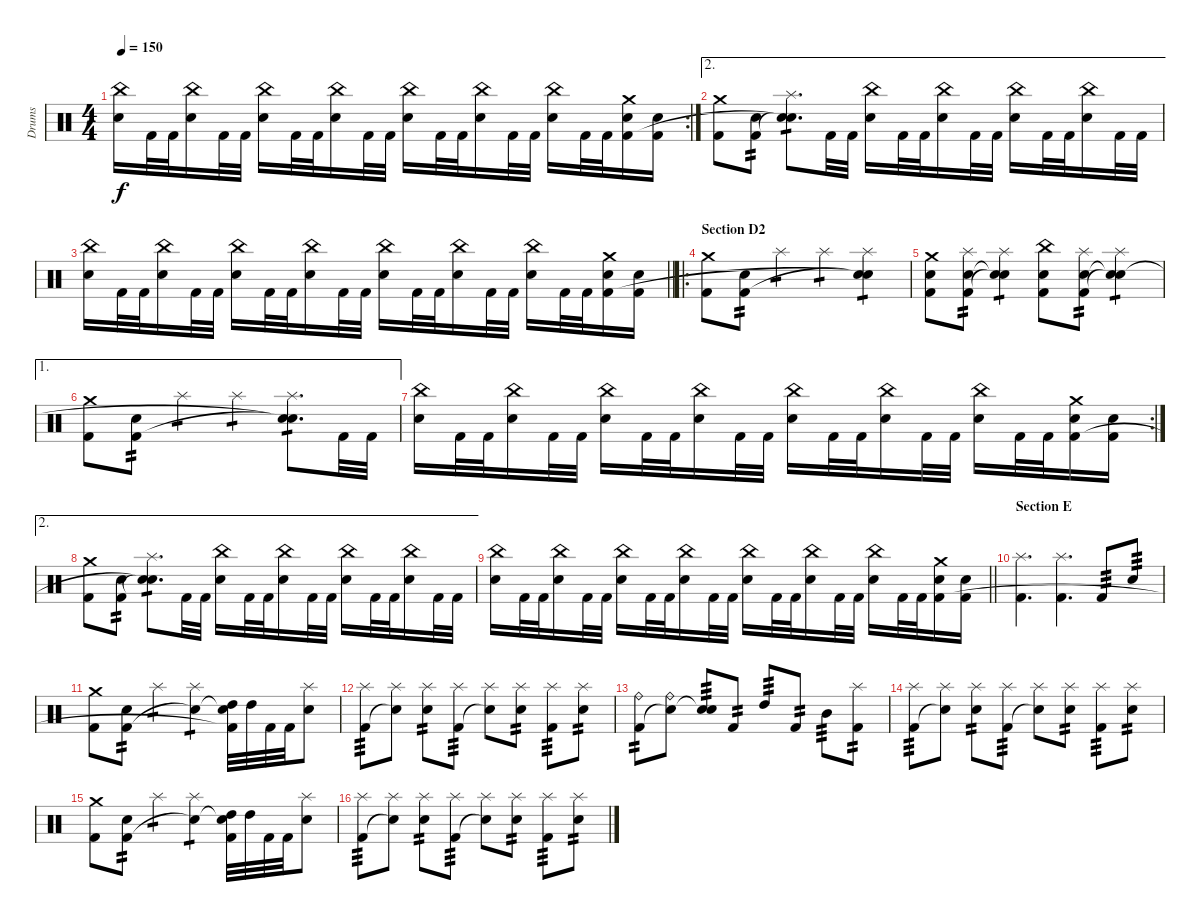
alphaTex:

\track ("Drums" "Drums") {instrument percussion}
\staff {score}
\articulation defaults
\rc 2
\ts (4 4)
\tempo 150
\clef neutral
\ks c
("China (hit)" "Snare (hit) 2").16{dy f} "Kick (hit) 2".32 "Kick (hit) 2".32 ("China (hit)" "Snare (hit) 2").16 "Kick (hit) 2".32 "Kick (hit) 2".32 ("China (hit)" "Snare (hit) 2").16 "Kick (hit) 2".32 "Kick (hit) 2".32 ("China (hit)" "Snare (hit) 2").16 "Kick (hit) 2".32 "Kick (hit) 2".32 ("China (hit)" "Snare (hit) 2").16 "Kick (hit) 2".32 "Kick (hit) 2".32 ("China (hit)" "Snare (hit) 2").16 "Kick (hit) 2".32 "Kick (hit) 2".32 ("China (hit)" "Snare (hit) 2").16 "Kick (hit) 2".32 "Kick (hit) 2".32 ("Crash medium (hit)" "Electric Snare (hit)" "Kick (hit) 2").16 ("Electric Snare (hit)" "Kick (hit) 2").16 |
\ae 2
("Crash medium (hit)" "Kick (hit) 2").8 ("Snare (hit) 2" "Kick (hit) 2").8{tp 2} ("Splash (hit)" "Snare (hit)"{t} "Snare (hit)"{t}).8{d tp 1} "Kick (hit) 2".32 "Kick (hit) 2".32 ("China (hit)" "Snare (hit) 2").16 "Kick (hit) 2".32 "Kick (hit) 2".32 ("China (hit)" "Snare (hit) 2").16 "Kick (hit) 2".32 "Kick (hit) 2".32 ("China (hit)" "Snare (hit) 2").16 "Kick (hit) 2".32 "Kick (hit) 2".32 ("China (hit)" "Snare (hit) 2").16 "Kick (hit) 2".32 "Kick (hit) 2".32 |
\barLineRight lightlight
("China (hit)" "Snare (hit) 2").16 "Kick (hit) 2".32 "Kick (hit) 2".32 ("China (hit)" "Snare (hit) 2").16 "Kick (hit) 2".32 "Kick (hit) 2".32 ("China (hit)" "Snare (hit) 2").16 "Kick (hit) 2".32 "Kick (hit) 2".32 ("China (hit)" "Snare (hit) 2").16 "Kick (hit) 2".32 "Kick (hit) 2".32 ("China (hit)" "Snare (hit) 2").16 "Kick (hit) 2".32 "Kick (hit) 2".32 ("China (hit)" "Snare (hit) 2").16 "Kick (hit) 2".32 "Kick (hit) 2".32 ("China (hit)" "Snare (hit) 2").16 "Kick (hit) 2".32 "Kick (hit) 2".32 ("Crash medium (hit)" "Electric Snare (hit)" "Kick (hit) 2").16 ("Electric Snare (hit)" "Kick (hit) 2").16 |
\ro
\section ("" "Section D2")
("Crash medium (hit)" "Kick (hit) 2").8 ("Snare (hit) 2" "Kick (hit) 2").8{tp 2} "Splash (hit)".4{tp 1} "Splash (hit)".4{tp 1} ("Splash (hit)" "Snare (hit)"{t} "Snare (hit)"{t}).4{tp 1} |
("Crash medium (hit)" "Snare (hit) 2" "Kick (hit) 2").8 ("Splash (hit)" "Snare (hit) 2" "Kick (hit) 2").8{tp 2} ("Splash (hit)" "Snare (hit)"{t} "Snare (hit)"{t}).4{tp 1} ("China (hit)" "Snare (hit) 2" "Kick (hit) 2").8 ("Splash (hit)" "Snare (hit) 2" "Kick (hit) 2").8{tp 2} ("Splash (hit)" "Snare (hit)"{t} "Snare (hit)"{t}).4{tp 1} |
\ae 1
("Crash medium (hit)" "Kick (hit) 2").8 ("Snare (hit) 2" "Kick (hit) 2").8{tp 2} "Splash (hit)".4{tp 1} "Splash (hit)".4{tp 1} ("Splash (hit)" "Snare (hit)"{t} "Snare (hit)"{t}).8{d tp 1} "Kick (hit) 2".32 "Kick (hit) 2".32 |
\rc 2
("China (hit)" "Snare (hit) 2").16 "Kick (hit) 2".32 "Kick (hit) 2".32 ("China (hit)" "Snare (hit) 2").16 "Kick (hit) 2".32 "Kick (hit) 2".32 ("China (hit)" "Snare (hit) 2").16 "Kick (hit) 2".32 "Kick (hit) 2".32 ("China (hit)" "Snare (hit) 2").16 "Kick (hit) 2".32 "Kick (hit) 2".32 ("China (hit)" "Snare (hit) 2").16 "Kick (hit) 2".32 "Kick (hit) 2".32 ("China (hit)" "Snare (hit) 2").16 "Kick (hit) 2".32 "Kick (hit) 2".32 ("China (hit)" "Snare (hit) 2").16 "Kick (hit) 2".32 "Kick (hit) 2".32 ("Crash medium (hit)" "Electric Snare (hit)" "Kick (hit) 2").16 ("Electric Snare (hit)" "Kick (hit) 2").16 |
\ae 2
("Crash medium (hit)" "Kick (hit) 2").8 ("Snare (hit) 2" "Kick (hit) 2").8{tp 2} ("Splash (hit)" "Snare (hit)"{t} "Snare (hit)"{t}).8{d tp 1} "Kick (hit) 2".32 "Kick (hit) 2".32 ("China (hit)" "Snare (hit) 2").16 "Kick (hit) 2".32 "Kick (hit) 2".32 ("China (hit)" "Snare (hit) 2").16 "Kick (hit) 2".32 "Kick (hit) 2".32 ("China (hit)" "Snare (hit) 2").16 "Kick (hit) 2".32 "Kick (hit) 2".32 ("China (hit)" "Snare (hit) 2").16 "Kick (hit) 2".32 "Kick (hit) 2".32 |
\barLineRight lightlight
("China (hit)" "Snare (hit) 2").16 "Kick (hit) 2".32 "Kick (hit) 2".32 ("China (hit)" "Snare (hit) 2").16 "Kick (hit) 2".32 "Kick (hit) 2".32 ("China (hit)" "Snare (hit) 2").16 "Kick (hit) 2".32 "Kick (hit) 2".32 ("China (hit)" "Snare (hit) 2").16 "Kick (hit) 2".32 "Kick (hit) 2".32 ("China (hit)" "Snare (hit) 2").16 "Kick (hit) 2".32 "Kick (hit) 2".32 ("China (hit)" "Snare (hit) 2").16 "Kick (hit) 2".32 "Kick (hit) 2".32 ("China (hit)" "Snare (hit) 2").16 "Kick (hit) 2".32 "Kick (hit) 2".32 ("Crash medium (hit)" "Electric Snare (hit)" "Kick (hit) 2").16 ("Electric Snare (hit)" "Kick (hit) 2").16 |
\section ("" "Section E")
("Splash (hit)" "Kick (hit) 2").4{d} ("Splash (hit)" "Kick (hit) 2").4{d} "Kick (hit) 2".8{tp 3} "Electric Snare (hit)".8{tp 3} |
("Crash medium (hit)" "Kick (hit) 2").8 ("Snare (hit) 2" "Kick (hit) 2").8{tp 2} "Splash (hit)".4{tp 1} ("Splash (hit)" "Snare (hit)"{t}).4{tp 1} ("High Tom (hit)" "Snare (hit)"{t} "Kick (hit) 2"{t}).32 "High Tom (hit)".32 "Kick (hit) 2".32 "Kick (hit) 2".32 ("Splash (hit)" "Electric Snare (hit)").8 |
("Splash (hit)" "Kick (hit) 2").8{tp 3} ("Splash (hit)" "Snare (hit)"{t}).8 ("Splash (hit)" "Electric Snare (hit)").8{tp 2} ("Splash (hit)" "Kick (hit) 2").8{tp 3} ("Splash (hit)" "Snare (hit)"{t}).8 ("Splash (hit)" "Electric Snare (hit)").8{tp 2} ("Splash (hit)" "Kick (hit) 2").8{tp 3} ("Splash (hit)" "Electric Snare (hit)").8{tp 2} |
("Ride (bell)" "Kick (hit) 2").8{tp 2} ("Ride (bell)" "Snare (hit)"{t}).8 ("Electric Snare (hit)" "Snare (hit)"{t}).8{tp 3} "Kick (hit) 2".8{tp 2} "High Tom (hit)".8{tp 3} "Kick (hit) 2".8{tp 2} "Mid Tom (hit)".8{tp 3} ("Splash (hit)" "Kick (hit) 2").8{tp 2} |
("Splash (hit)" "Kick (hit) 2").8{tp 3} ("Splash (hit)" "Snare (hit)"{t}).8 ("Splash (hit)" "Electric Snare (hit)").8{tp 2} ("Splash (hit)" "Kick (hit) 2").8{tp 3} ("Splash (hit)" "Snare (hit)"{t}).8 ("Splash (hit)" "Electric Snare (hit)").8{tp 2} ("Splash (hit)" "Kick (hit) 2").8{tp 3} ("Splash (hit)" "Electric Snare (hit)").8{tp 2} |
("Crash medium (hit)" "Kick (hit) 2").8 ("Snare (hit) 2" "Kick (hit) 2").8{tp 2} "Splash (hit)".4{tp 1} ("Splash (hit)" "Snare (hit)"{t}).4{tp 1} ("High Tom (hit)" "Snare (hit)"{t} "Kick (hit) 2").32 "High Tom (hit)".32 "Kick (hit) 2".32 "Kick (hit) 2".32 ("Splash (hit)" "Electric Snare (hit)").8 |
("Splash (hit)" "Kick (hit) 2").8{tp 3} ("Splash (hit)" "Snare (hit)"{t}).8 ("Splash (hit)" "Electric Snare (hit)").8{tp 2} ("Splash (hit)" "Kick (hit) 2").8{tp 3} ("Splash (hit)" "Snare (hit)"{t}).8 ("Splash (hit)" "Electric Snare (hit)").8{tp 2} ("Splash (hit)" "Kick (hit) 2").8{tp 3} ("Splash (hit)" "Electric Snare (hit)").8{tp 2}
